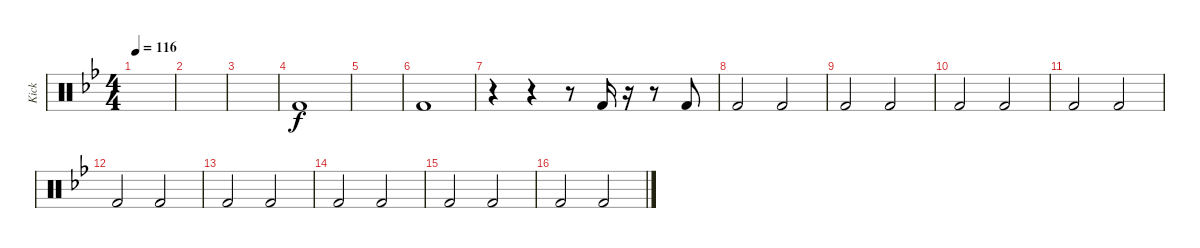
\track ("Kick" "Kick") {instrument percussion}
\staff {score}
\articulation defaults
\ts (4 4)
\tempo 116
\clef neutral
\ks bb
|
|
|
"Kick (hit) 2".1 |
|
"Kick (hit) 2".1 |
r.4 r.4 r.8 "Kick (hit) 2".16 r.16 r.8 "Kick (hit) 2".8 |
"Kick (hit) 2".2 "Kick (hit) 2".2 |
"Kick (hit) 2".2 "Kick (hit) 2".2 |
"Kick (hit) 2".2 "Kick (hit) 2".2 |
"Kick (hit) 2".2 "Kick (hit) 2".2 |
"Kick (hit) 2".2 "Kick (hit) 2".2 |
"Kick (hit) 2".2 "Kick (hit) 2".2 |
"Kick (hit) 2".2 "Kick (hit) 2".2 |
"Kick (hit) 2".2 "Kick (hit) 2".2 |
"Kick (hit) 2".2 "Kick (hit) 2".2
